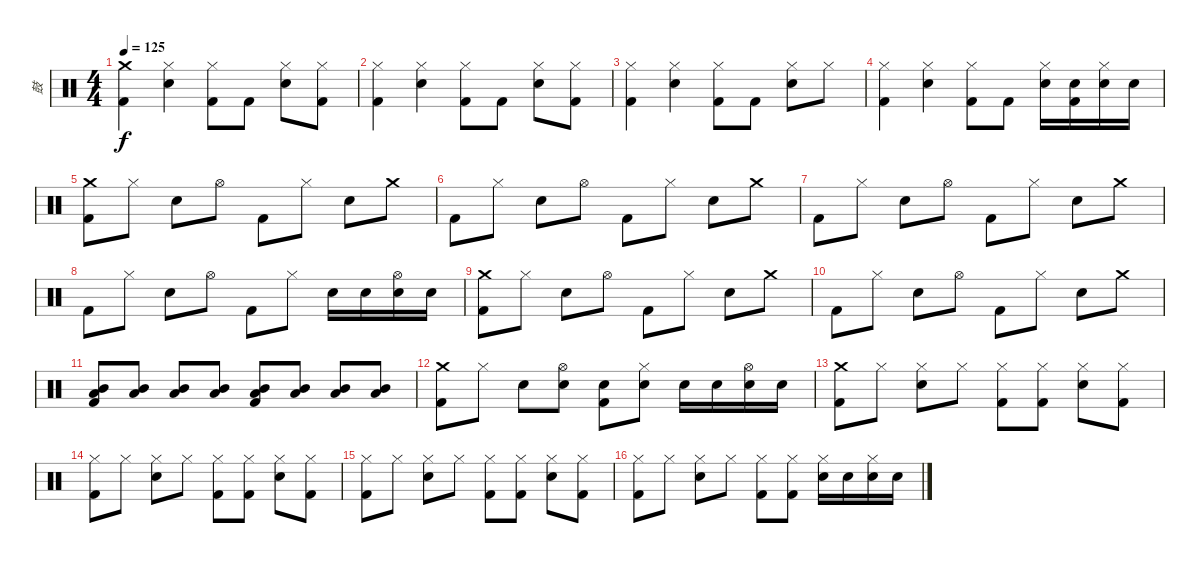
\track ("鼓" "鼓") {instrument percussion}
\staff {score}
\articulation defaults
\ts (4 4)
\tempo 125
\clef neutral
\ks c
("Crash medium (hit)" "Kick (hit) 2").4{dy f} ("Hi-Hat (closed)" "Electric Snare (hit)").4 ("Hi-Hat (closed)" "Kick (hit) 2").8 "Kick (hit) 2".8 ("Hi-Hat (closed)" "Electric Snare (hit)").8 ("Hi-Hat (closed)" "Kick (hit) 2").8 |
("Hi-Hat (closed)" "Kick (hit) 2").4 ("Hi-Hat (closed)" "Electric Snare (hit)").4 ("Hi-Hat (closed)" "Kick (hit) 2").8 "Kick (hit) 2".8 ("Hi-Hat (closed)" "Electric Snare (hit)").8 ("Hi-Hat (closed)" "Kick (hit) 2").8 |
("Hi-Hat (closed)" "Kick (hit) 2").4 ("Hi-Hat (closed)" "Electric Snare (hit)").4 ("Hi-Hat (closed)" "Kick (hit) 2").8 "Kick (hit) 2".8 ("Hi-Hat (closed)" "Electric Snare (hit)").8 "Hi-Hat (closed)".8 |
("Hi-Hat (closed)" "Kick (hit) 2").4 ("Hi-Hat (closed)" "Electric Snare (hit)").4 ("Hi-Hat (closed)" "Kick (hit) 2").8 "Kick (hit) 2".8 ("Hi-Hat (closed)" "Electric Snare (hit)").16 ("Electric Snare (hit)" "Kick (hit) 2").16 ("Hi-Hat (closed)" "Electric Snare (hit)").16 "Electric Snare (hit)".16 |
("Crash medium (hit)" "Kick (hit) 2").8 "Hi-Hat (closed)".8 "Electric Snare (hit)".8 "Hi-Hat (open)".8 "Kick (hit) 2".8 "Hi-Hat (closed)".8 "Electric Snare (hit)".8 "Crash medium (hit)".8 |
"Kick (hit) 2".8 "Hi-Hat (closed)".8 "Electric Snare (hit)".8 "Hi-Hat (open)".8 "Kick (hit) 2".8 "Hi-Hat (closed)".8 "Electric Snare (hit)".8 "Crash medium (hit)".8 |
"Kick (hit) 2".8 "Hi-Hat (closed)".8 "Electric Snare (hit)".8 "Hi-Hat (open)".8 "Kick (hit) 2".8 "Hi-Hat (closed)".8 "Electric Snare (hit)".8 "Crash medium (hit)".8 |
"Kick (hit) 2".8 "Hi-Hat (closed)".8 "Electric Snare (hit)".8 "Hi-Hat (open)".8 "Kick (hit) 2".8 "Hi-Hat (closed)".8 "Electric Snare (hit)".16 "Electric Snare (hit)".16 ("Hi-Hat (open)" "Electric Snare (hit)").16 "Electric Snare (hit)".16 |
("Crash medium (hit)" "Kick (hit) 2").8 "Hi-Hat (closed)".8 "Electric Snare (hit)".8 "Hi-Hat (open)".8 "Kick (hit) 2".8 "Hi-Hat (closed)".8 "Electric Snare (hit)".8 "Crash medium (hit)".8 |
"Kick (hit) 2".8 "Hi-Hat (closed)".8 "Electric Snare (hit)".8 "Hi-Hat (open)".8 "Kick (hit) 2".8 "Hi-Hat (closed)".8 "Electric Snare (hit)".8 "Crash medium (hit)".8 |
("Mid Tom (hit)" "Low Tom (hit)" "Kick (hit) 2").8 ("Mid Tom (hit)" "Low Tom (hit)").8 ("Mid Tom (hit)" "Low Tom (hit)").8 ("Mid Tom (hit)" "Low Tom (hit)").8 ("Mid Tom (hit)" "Low Tom (hit)" "Kick (hit) 2").8 ("Mid Tom (hit)" "Low Tom (hit)").8 ("Mid Tom (hit)" "Low Tom (hit)").8 ("Mid Tom (hit)" "Low Tom (hit)").8 |
("Crash medium (hit)" "Kick (hit) 2").8 "Hi-Hat (closed)".8 "Electric Snare (hit)".8 ("Hi-Hat (open)" "Electric Snare (hit)").8 ("Electric Snare (hit)" "Kick (hit) 2").8 ("Hi-Hat (closed)" "Electric Snare (hit)").8 "Electric Snare (hit)".16 "Electric Snare (hit)".16 ("Hi-Hat (open)" "Electric Snare (hit)").16 "Electric Snare (hit)".16 |
("Crash medium (hit)" "Kick (hit) 2").8 "Hi-Hat (closed)".8 ("Hi-Hat (closed)" "Electric Snare (hit)").8 "Hi-Hat (closed)".8 ("Hi-Hat (closed)" "Kick (hit) 2").8 ("Hi-Hat (closed)" "Kick (hit) 2").8 ("Hi-Hat (closed)" "Electric Snare (hit)").8 ("Hi-Hat (closed)" "Kick (hit) 2").8 |
("Hi-Hat (closed)" "Kick (hit) 2").8 "Hi-Hat (closed)".8 ("Hi-Hat (closed)" "Electric Snare (hit)").8 "Hi-Hat (closed)".8 ("Hi-Hat (closed)" "Kick (hit) 2").8 ("Hi-Hat (closed)" "Kick (hit) 2").8 ("Hi-Hat (closed)" "Electric Snare (hit)").8 ("Hi-Hat (closed)" "Kick (hit) 2").8 |
("Hi-Hat (closed)" "Kick (hit) 2").8 "Hi-Hat (closed)".8 ("Hi-Hat (closed)" "Electric Snare (hit)").8 "Hi-Hat (closed)".8 ("Hi-Hat (closed)" "Kick (hit) 2").8 ("Hi-Hat (closed)" "Kick (hit) 2").8 ("Hi-Hat (closed)" "Electric Snare (hit)").8 ("Hi-Hat (closed)" "Kick (hit) 2").8 |
("Hi-Hat (closed)" "Kick (hit) 2").8 "Hi-Hat (closed)".8 ("Hi-Hat (closed)" "Electric Snare (hit)").8 "Hi-Hat (closed)".8 ("Hi-Hat (closed)" "Kick (hit) 2").8 ("Hi-Hat (closed)" "Kick (hit) 2").8 ("Hi-Hat (closed)" "Electric Snare (hit)").16 "Electric Snare (hit)".16 ("Hi-Hat (closed)" "Electric Snare (hit)").16 "Electric Snare (hit)".16
